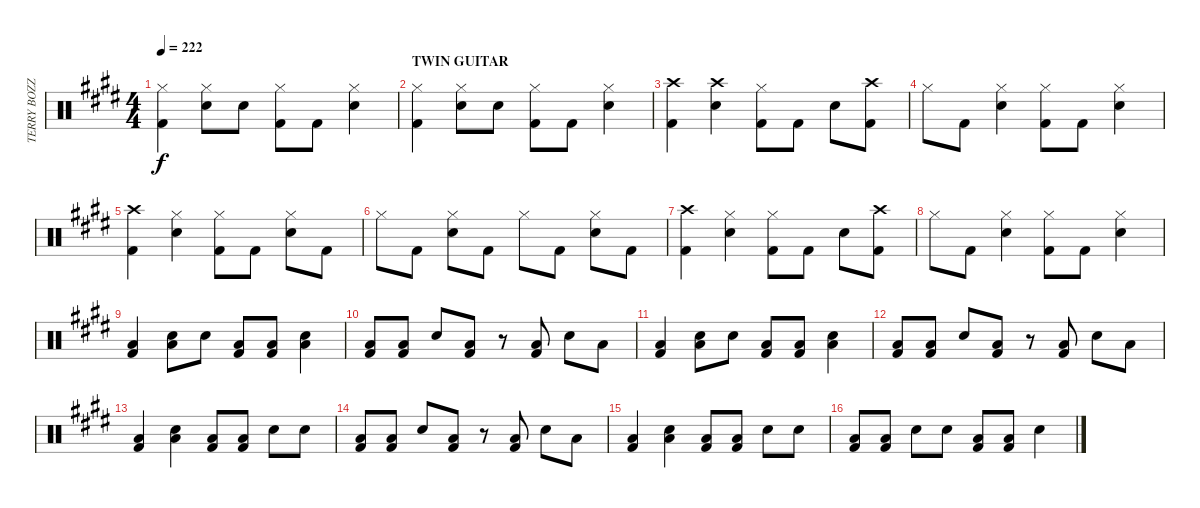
\track ("TERRY BOZZIO" "TERRY BOZZ") {instrument percussion}
\staff {score}
\articulation defaults
\ts (4 4)
\tempo 222
\clef neutral
\ks c#minor
("Hi-Hat (closed)" "Kick (hit) 2").4{dy f} ("Hi-Hat (closed)" "Snare (hit) 2").8 "Snare (hit) 2".8 ("Hi-Hat (closed)" "Kick (hit) 2").8 "Kick (hit) 2".8 ("Hi-Hat (closed)" "Snare (hit) 2").4 |
\section ("" "TWIN GUITAR")
("Hi-Hat (closed)" "Kick (hit) 2").4 ("Hi-Hat (closed)" "Snare (hit) 2").8 "Snare (hit) 2".8 ("Hi-Hat (closed)" "Kick (hit) 2").8 "Kick (hit) 2".8 ("Hi-Hat (closed)" "Snare (hit) 2").4 |
("Crash high (hit)" "Kick (hit) 2").4 ("Crash high (hit)" "Snare (hit) 2").4 ("Hi-Hat (closed)" "Kick (hit) 2").8 "Kick (hit) 2".8 "Snare (hit) 2".8 ("Crash high (hit)" "Kick (hit) 2").8 |
"Hi-Hat (closed)".8 "Kick (hit) 2".8 ("Hi-Hat (closed)" "Snare (hit) 2").4 ("Hi-Hat (closed)" "Kick (hit) 2").8 "Kick (hit) 2".8 ("Hi-Hat (closed)" "Snare (hit) 2").4 |
("Crash high (hit)" "Kick (hit) 2").4 ("Hi-Hat (closed)" "Snare (hit) 2").4 ("Hi-Hat (closed)" "Kick (hit) 2").8 "Kick (hit) 2".8 ("Hi-Hat (closed)" "Snare (hit) 2").8 "Kick (hit) 2".8 |
"Hi-Hat (closed)".8 "Kick (hit) 2".8 ("Hi-Hat (closed)" "Snare (hit) 2").8 "Kick (hit) 2".8 "Hi-Hat (closed)".8 "Kick (hit) 2".8 ("Hi-Hat (closed)" "Snare (hit) 2").8 "Kick (hit) 2".8 |
("Crash high (hit)" "Kick (hit) 2").4 ("Hi-Hat (closed)" "Snare (hit) 2").4 ("Hi-Hat (closed)" "Kick (hit) 2").8 "Kick (hit) 2".8 "Snare (hit) 2".8 ("Crash high (hit)" "Kick (hit) 2").8 |
"Hi-Hat (closed)".8 "Kick (hit) 2".8 ("Hi-Hat (closed)" "Snare (hit) 2").4 ("Hi-Hat (closed)" "Kick (hit) 2").8 "Kick (hit) 2".8 ("Hi-Hat (closed)" "Snare (hit) 2").4 |
("Low Tom (hit)" "Kick (hit) 2").4 ("Low Tom (hit)" "Snare (hit) 2").8 "Snare (hit) 2".8 ("Low Tom (hit)" "Kick (hit) 2").8 ("Low Tom (hit)" "Kick (hit) 2").8 ("Low Tom (hit)" "Snare (hit) 2").4 |
("Low Tom (hit)" "Kick (hit) 2").8 ("Low Tom (hit)" "Kick (hit) 2").8 "Snare (hit) 2".8 ("Low Tom (hit)" "Kick (hit) 2").8 r.8 ("Low Tom (hit)" "Kick (hit) 2").8 "Snare (hit) 2".8 "Low Tom (hit)".8 |
("Low Tom (hit)" "Kick (hit) 2").4 ("Low Tom (hit)" "Snare (hit) 2").8 "Snare (hit) 2".8 ("Low Tom (hit)" "Kick (hit) 2").8 ("Low Tom (hit)" "Kick (hit) 2").8 ("Low Tom (hit)" "Snare (hit) 2").4 |
("Low Tom (hit)" "Kick (hit) 2").8 ("Low Tom (hit)" "Kick (hit) 2").8 "Snare (hit) 2".8 ("Low Tom (hit)" "Kick (hit) 2").8 r.8 ("Low Tom (hit)" "Kick (hit) 2").8 "Snare (hit) 2".8 "Low Tom (hit)".8 |
("Low Tom (hit)" "Kick (hit) 2").4 ("Low Tom (hit)" "Snare (hit) 2").4 ("Low Tom (hit)" "Kick (hit) 2").8 ("Low Tom (hit)" "Kick (hit) 2").8 "Snare (hit) 2".8 "Snare (hit) 2".8 |
("Low Tom (hit)" "Kick (hit) 2").8 ("Low Tom (hit)" "Kick (hit) 2").8 "Snare (hit) 2".8 ("Low Tom (hit)" "Kick (hit) 2").8 r.8 ("Low Tom (hit)" "Kick (hit) 2").8 "Snare (hit) 2".8 "Low Tom (hit)".8 |
("Kick (hit) 2" "Low Tom (hit)").4 ("Low Tom (hit)" "Snare (hit) 2").4 ("Low Tom (hit)" "Kick (hit) 2").8 ("Low Tom (hit)" "Kick (hit) 2").8 "Snare (hit) 2".8 "Snare (hit) 2".8 |
("Low Tom (hit)" "Kick (hit) 2").8 ("Low Tom (hit)" "Kick (hit) 2").8 "Snare (hit) 2".8 "Snare (hit) 2".8 ("Low Tom (hit)" "Kick (hit) 2").8 ("Low Tom (hit)" "Kick (hit) 2").8 "Snare (hit) 2".4
